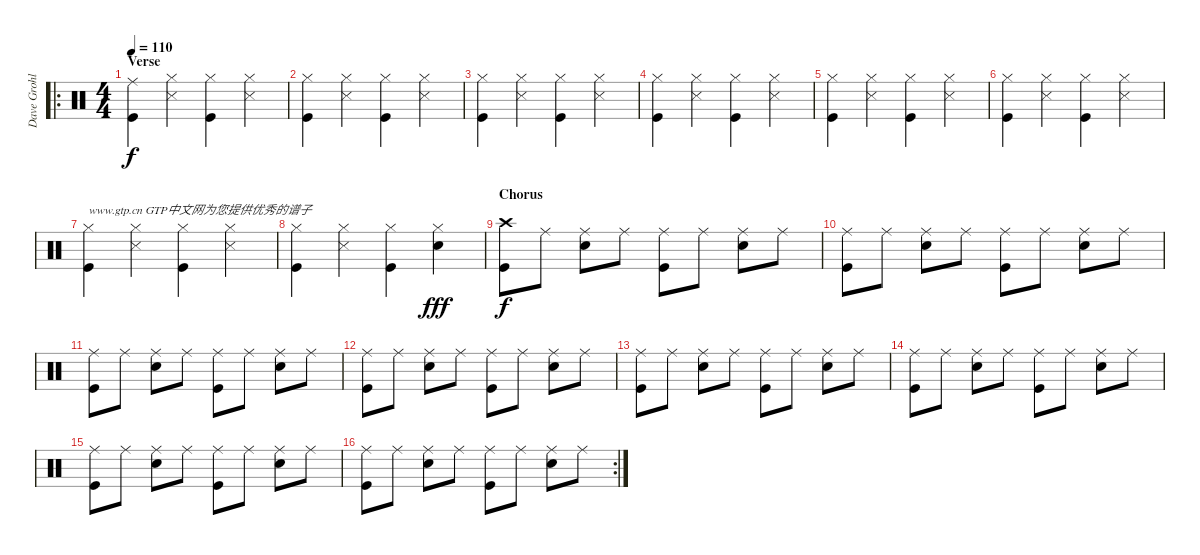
\track ("Dave Grohl" "Dave Grohl") {instrument percussion}
\staff {score}
\articulation defaults
\ro
\ts (4 4)
\section ("" "Verse")
\tempo 110
\clef neutral
\ks c
("Ride (middle)" "Kick (hit)").4{dy f} ("Hi-Hat (closed)" "Snare (side stick) 3").4 ("Hi-Hat (closed)" "Kick (hit)").4 ("Hi-Hat (closed)" "Snare (side stick) 3").4 |
("Hi-Hat (closed)" "Kick (hit)").4 ("Hi-Hat (closed)" "Snare (side stick) 3").4 ("Hi-Hat (closed)" "Kick (hit)").4 ("Hi-Hat (closed)" "Snare (side stick) 3").4 |
("Hi-Hat (closed)" "Kick (hit)").4 ("Hi-Hat (closed)" "Snare (side stick) 3").4 ("Hi-Hat (closed)" "Kick (hit)").4 ("Hi-Hat (closed)" "Snare (side stick) 3").4 |
("Hi-Hat (closed)" "Kick (hit)").4 ("Hi-Hat (closed)" "Snare (side stick) 3").4 ("Hi-Hat (closed)" "Kick (hit)").4 ("Hi-Hat (closed)" "Snare (side stick) 3").4 |
("Hi-Hat (closed)" "Kick (hit)").4 ("Hi-Hat (closed)" "Snare (side stick) 3").4 ("Hi-Hat (closed)" "Kick (hit)").4 ("Hi-Hat (closed)" "Snare (side stick) 3").4 |
("Hi-Hat (closed)" "Kick (hit)").4 ("Hi-Hat (closed)" "Snare (side stick) 3").4 ("Hi-Hat (closed)" "Kick (hit)").4 ("Hi-Hat (closed)" "Snare (side stick) 3").4 |
("Hi-Hat (closed)" "Kick (hit)").4{txt "www.gtp.cn GTP中文网为您提供优秀的谱子"} ("Hi-Hat (closed)" "Snare (side stick) 3").4 ("Hi-Hat (closed)" "Kick (hit)").4 ("Hi-Hat (closed)" "Snare (side stick) 3").4 |
("Hi-Hat (closed)" "Kick (hit)").4 ("Hi-Hat (closed)" "Snare (side stick) 3").4 ("Hi-Hat (closed)" "Kick (hit)").4 ("Hi-Hat (closed)" "Electric Snare (hit)").4{dy fff} |
\section ("" "Chorus")
("Crash high (hit)" "Kick (hit)").8{dy f} "Ride (middle)".8 ("Ride (middle)" "Electric Snare (hit)").8 "Ride (middle)".8 ("Ride (middle)" "Kick (hit)").8 "Ride (middle)".8 ("Ride (middle)" "Electric Snare (hit)").8 "Ride (middle)".8 |
("Ride (middle)" "Kick (hit)").8 "Ride (middle)".8 ("Ride (middle)" "Electric Snare (hit)").8 "Ride (middle)".8 ("Ride (middle)" "Kick (hit)").8 "Ride (middle)".8 ("Ride (middle)" "Electric Snare (hit)").8 "Ride (middle)".8 |
("Ride (middle)" "Kick (hit)").8 "Ride (middle)".8 ("Ride (middle)" "Electric Snare (hit)").8 "Ride (middle)".8 ("Ride (middle)" "Kick (hit)").8 "Ride (middle)".8 ("Ride (middle)" "Electric Snare (hit)").8 "Ride (middle)".8 |
("Ride (middle)" "Kick (hit)").8 "Ride (middle)".8 ("Ride (middle)" "Electric Snare (hit)").8 "Ride (middle)".8 ("Ride (middle)" "Kick (hit)").8 "Ride (middle)".8 ("Ride (middle)" "Electric Snare (hit)").8 "Ride (middle)".8 |
("Ride (middle)" "Kick (hit)").8 "Ride (middle)".8 ("Ride (middle)" "Electric Snare (hit)").8 "Ride (middle)".8 ("Ride (middle)" "Kick (hit)").8 "Ride (middle)".8 ("Ride (middle)" "Electric Snare (hit)").8 "Ride (middle)".8 |
("Ride (middle)" "Kick (hit)").8 "Ride (middle)".8 ("Ride (middle)" "Electric Snare (hit)").8 "Ride (middle)".8 ("Ride (middle)" "Kick (hit)").8 "Ride (middle)".8 ("Ride (middle)" "Electric Snare (hit)").8 "Ride (middle)".8 |
("Ride (middle)" "Kick (hit)").8 "Ride (middle)".8 ("Ride (middle)" "Electric Snare (hit)").8 "Ride (middle)".8 ("Ride (middle)" "Kick (hit)").8 "Ride (middle)".8 ("Ride (middle)" "Electric Snare (hit)").8 "Ride (middle)".8 |
\rc 2
("Ride (middle)" "Kick (hit)").8 "Ride (middle)".8 ("Ride (middle)" "Electric Snare (hit)").8 "Ride (middle)".8 ("Ride (middle)" "Kick (hit)").8 "Ride (middle)".8 ("Ride (middle)" "Electric Snare (hit)").8 "Ride (middle)".8
